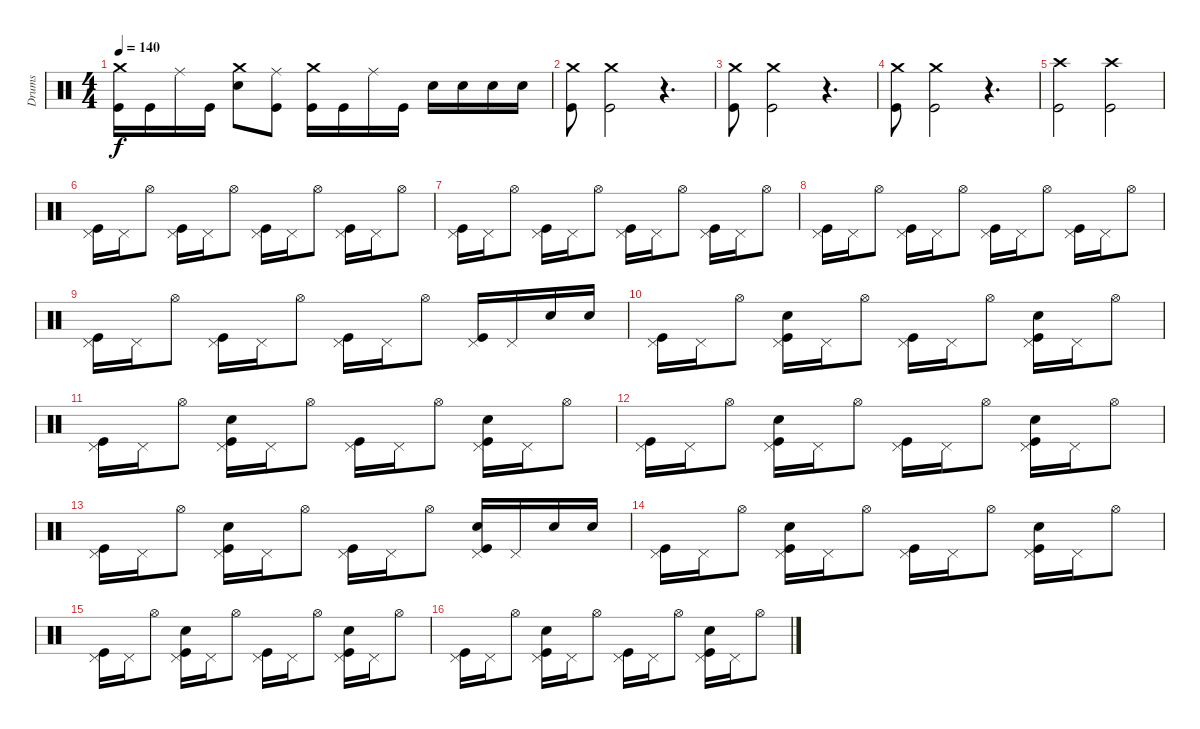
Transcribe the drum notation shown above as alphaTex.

\track ("Drums" "Drums") {instrument percussion}
\staff {score}
\articulation defaults
\ts (4 4)
\tempo 140
\clef neutral
\ks c
("Kick (hit)" "Crash medium (hit)").16{dy f} "Kick (hit)".16 "Ride (middle)".16 "Kick (hit)".16 ("Snare (hit) 2" "Crash medium (hit)").8 ("Kick (hit)" "Ride (middle)").8 ("Kick (hit)" "Crash medium (hit)").16 "Kick (hit)".16 "Ride (middle)".16 "Kick (hit)".16 "Snare (hit) 2".16 "Snare (hit) 2".16 "Snare (hit) 2".16 "Snare (hit) 2".16 |
("Kick (hit)" "Crash medium (hit)").8 ("Kick (hit)" "Crash medium (hit)").2 r.4{d} |
("Kick (hit)" "Crash medium (hit)").8 ("Kick (hit)" "Crash medium (hit)").2 r.4{d} |
("Kick (hit)" "Crash medium (hit)").8 ("Kick (hit)" "Crash medium (hit)").2 r.4{d} |
("Kick (hit)" "Crash high (hit)").2 ("Kick (hit)" "Crash high (hit)").2 |
("Kick (hit)" "Pedal Hi-Hat (hit)").16 "Pedal Hi-Hat (hit)".16 "Hi-Hat (open)".8 ("Kick (hit)" "Pedal Hi-Hat (hit)").16 "Pedal Hi-Hat (hit)".16 "Hi-Hat (open)".8 ("Kick (hit)" "Pedal Hi-Hat (hit)").16 "Pedal Hi-Hat (hit)".16 "Hi-Hat (open)".8 ("Kick (hit)" "Pedal Hi-Hat (hit)").16 "Pedal Hi-Hat (hit)".16 "Hi-Hat (open)".8 |
("Kick (hit)" "Pedal Hi-Hat (hit)").16 "Pedal Hi-Hat (hit)".16 "Hi-Hat (open)".8 ("Kick (hit)" "Pedal Hi-Hat (hit)").16 "Pedal Hi-Hat (hit)".16 "Hi-Hat (open)".8 ("Kick (hit)" "Pedal Hi-Hat (hit)").16 "Pedal Hi-Hat (hit)".16 "Hi-Hat (open)".8 ("Kick (hit)" "Pedal Hi-Hat (hit)").16 "Pedal Hi-Hat (hit)".16 "Hi-Hat (open)".8 |
("Kick (hit)" "Pedal Hi-Hat (hit)").16 "Pedal Hi-Hat (hit)".16 "Hi-Hat (open)".8 ("Kick (hit)" "Pedal Hi-Hat (hit)").16 "Pedal Hi-Hat (hit)".16 "Hi-Hat (open)".8 ("Kick (hit)" "Pedal Hi-Hat (hit)").16 "Pedal Hi-Hat (hit)".16 "Hi-Hat (open)".8 ("Kick (hit)" "Pedal Hi-Hat (hit)").16 "Pedal Hi-Hat (hit)".16 "Hi-Hat (open)".8 |
("Kick (hit)" "Pedal Hi-Hat (hit)").16 "Pedal Hi-Hat (hit)".16 "Hi-Hat (open)".8 ("Kick (hit)" "Pedal Hi-Hat (hit)").16 "Pedal Hi-Hat (hit)".16 "Hi-Hat (open)".8 ("Kick (hit)" "Pedal Hi-Hat (hit)").16 "Pedal Hi-Hat (hit)".16 "Hi-Hat (open)".8 ("Kick (hit)" "Pedal Hi-Hat (hit)").16 "Pedal Hi-Hat (hit)".16 "Snare (hit) 2".16 "Snare (hit) 2".16 |
("Kick (hit)" "Pedal Hi-Hat (hit)").16 "Pedal Hi-Hat (hit)".16 "Hi-Hat (open)".8 ("Kick (hit)" "Snare (hit) 2" "Pedal Hi-Hat (hit)").16 "Pedal Hi-Hat (hit)".16 "Hi-Hat (open)".8 ("Kick (hit)" "Pedal Hi-Hat (hit)").16 "Pedal Hi-Hat (hit)".16 "Hi-Hat (open)".8 ("Kick (hit)" "Snare (hit) 2" "Pedal Hi-Hat (hit)").16 "Pedal Hi-Hat (hit)".16 "Hi-Hat (open)".8 |
("Kick (hit)" "Pedal Hi-Hat (hit)").16 "Pedal Hi-Hat (hit)".16 "Hi-Hat (open)".8 ("Kick (hit)" "Snare (hit) 2" "Pedal Hi-Hat (hit)").16 "Pedal Hi-Hat (hit)".16 "Hi-Hat (open)".8 ("Kick (hit)" "Pedal Hi-Hat (hit)").16 "Pedal Hi-Hat (hit)".16 "Hi-Hat (open)".8 ("Kick (hit)" "Snare (hit) 2" "Pedal Hi-Hat (hit)").16 "Pedal Hi-Hat (hit)".16 "Hi-Hat (open)".8 |
("Kick (hit)" "Pedal Hi-Hat (hit)").16 "Pedal Hi-Hat (hit)".16 "Hi-Hat (open)".8 ("Kick (hit)" "Snare (hit) 2" "Pedal Hi-Hat (hit)").16 "Pedal Hi-Hat (hit)".16 "Hi-Hat (open)".8 ("Kick (hit)" "Pedal Hi-Hat (hit)").16 "Pedal Hi-Hat (hit)".16 "Hi-Hat (open)".8 ("Kick (hit)" "Snare (hit) 2" "Pedal Hi-Hat (hit)").16 "Pedal Hi-Hat (hit)".16 "Hi-Hat (open)".8 |
("Kick (hit)" "Pedal Hi-Hat (hit)").16 "Pedal Hi-Hat (hit)".16 "Hi-Hat (open)".8 ("Kick (hit)" "Snare (hit) 2" "Pedal Hi-Hat (hit)").16 "Pedal Hi-Hat (hit)".16 "Hi-Hat (open)".8 ("Kick (hit)" "Pedal Hi-Hat (hit)").16 "Pedal Hi-Hat (hit)".16 "Hi-Hat (open)".8 ("Kick (hit)" "Snare (hit) 2" "Pedal Hi-Hat (hit)").16 "Pedal Hi-Hat (hit)".16 "Snare (hit) 2".16 "Snare (hit) 2".16 |
("Kick (hit)" "Pedal Hi-Hat (hit)").16 "Pedal Hi-Hat (hit)".16 "Hi-Hat (open)".8 ("Kick (hit)" "Snare (hit) 2" "Pedal Hi-Hat (hit)").16 "Pedal Hi-Hat (hit)".16 "Hi-Hat (open)".8 ("Kick (hit)" "Pedal Hi-Hat (hit)").16 "Pedal Hi-Hat (hit)".16 "Hi-Hat (open)".8 ("Kick (hit)" "Snare (hit) 2" "Pedal Hi-Hat (hit)").16 "Pedal Hi-Hat (hit)".16 "Hi-Hat (open)".8 |
("Kick (hit)" "Pedal Hi-Hat (hit)").16 "Pedal Hi-Hat (hit)".16 "Hi-Hat (open)".8 ("Kick (hit)" "Snare (hit) 2" "Pedal Hi-Hat (hit)").16 "Pedal Hi-Hat (hit)".16 "Hi-Hat (open)".8 ("Kick (hit)" "Pedal Hi-Hat (hit)").16 "Pedal Hi-Hat (hit)".16 "Hi-Hat (open)".8 ("Kick (hit)" "Snare (hit) 2" "Pedal Hi-Hat (hit)").16 "Pedal Hi-Hat (hit)".16 "Hi-Hat (open)".8 |
("Kick (hit)" "Pedal Hi-Hat (hit)").16 "Pedal Hi-Hat (hit)".16 "Hi-Hat (open)".8 ("Kick (hit)" "Snare (hit) 2" "Pedal Hi-Hat (hit)").16 "Pedal Hi-Hat (hit)".16 "Hi-Hat (open)".8 ("Kick (hit)" "Pedal Hi-Hat (hit)").16 "Pedal Hi-Hat (hit)".16 "Hi-Hat (open)".8 ("Kick (hit)" "Snare (hit) 2" "Pedal Hi-Hat (hit)").16 "Pedal Hi-Hat (hit)".16 "Hi-Hat (open)".8
